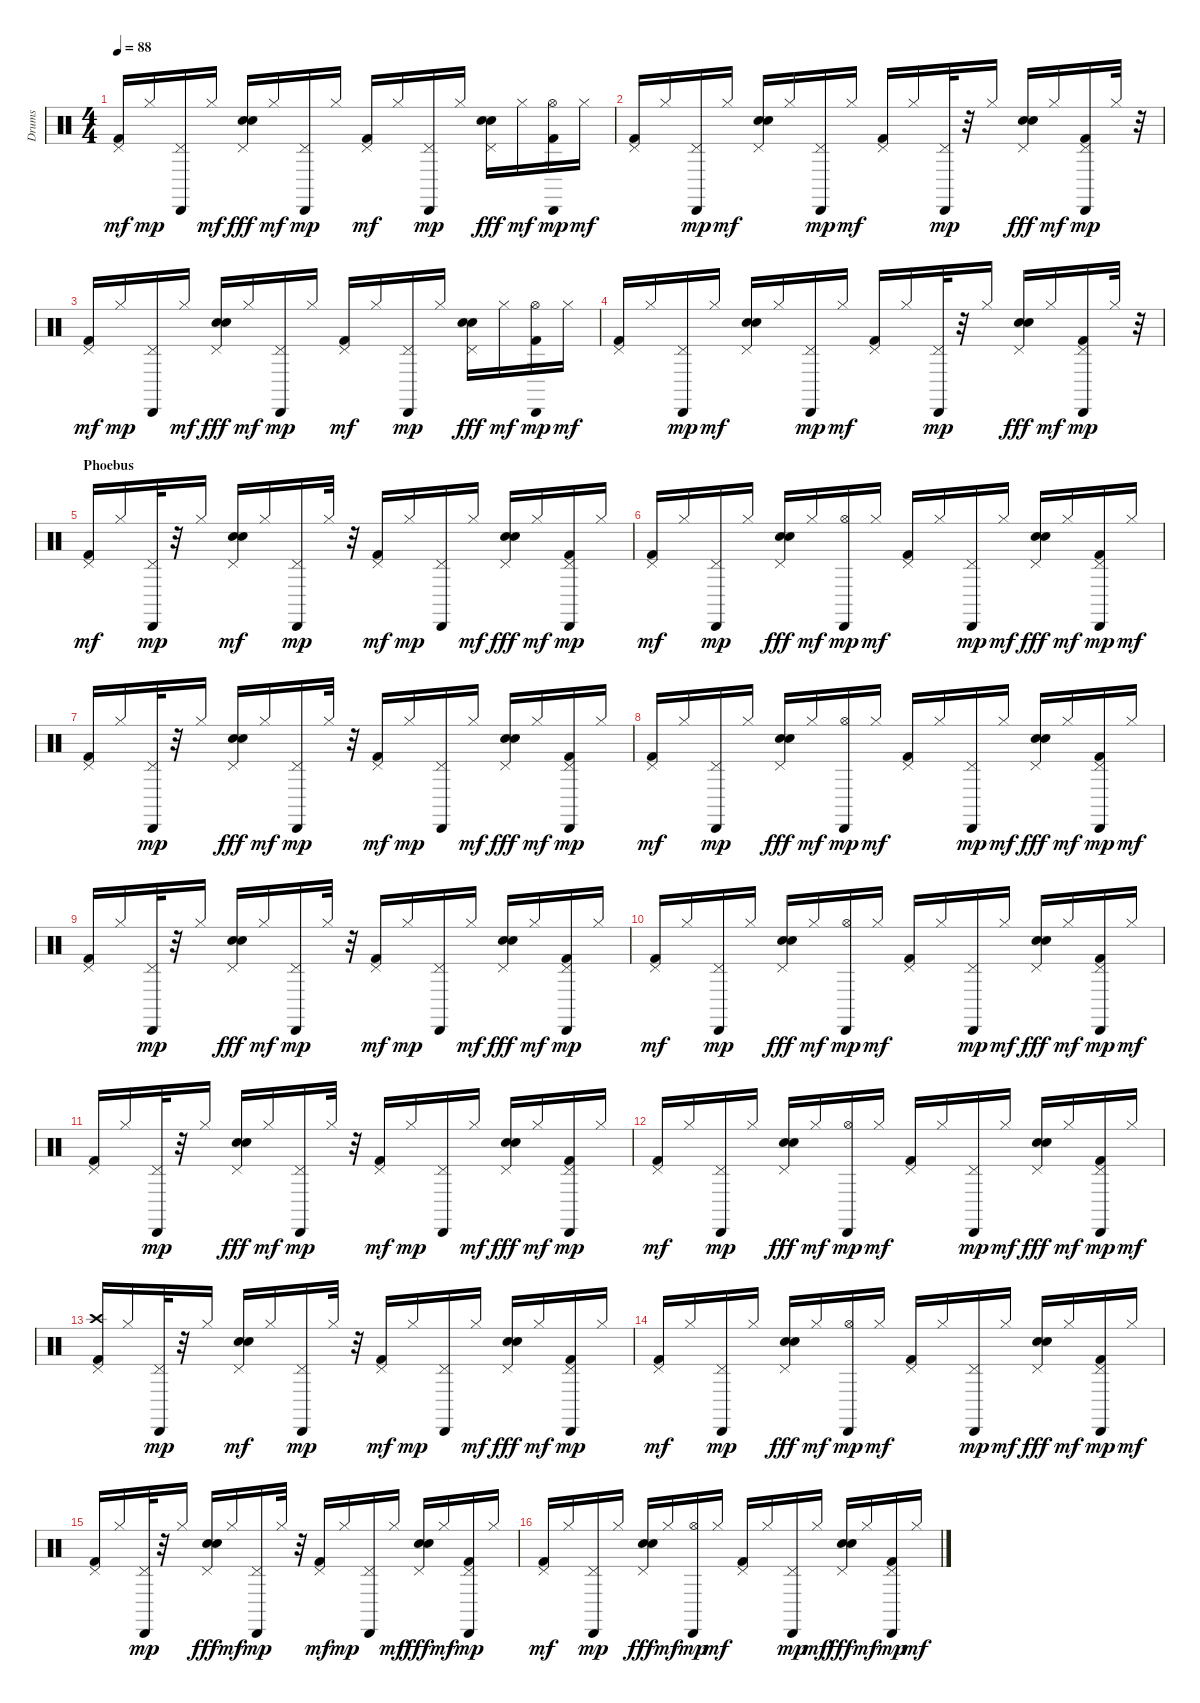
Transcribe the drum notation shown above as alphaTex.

\track ("Drums" "Drums") {instrument percussion}
\staff {score}
\articulation defaults
\ts (4 4)
\tempo 88
\clef neutral
\ks c
("Pedal Hi-Hat (hit)" "Kick (hit) 2").16{dy mf} "Hi-Hat (closed)".16{dy mp} ("Pedal Hi-Hat (hit)" "Cabasa (hit)").16 "Hi-Hat (closed)".16{dy mf} ("Pedal Hi-Hat (hit)" "Snare (hit) 2" "Electric Snare (hit)").16{dy fff} "Hi-Hat (closed)".16{dy mf} ("Pedal Hi-Hat (hit)" "Cabasa (hit)").16{dy mp} "Hi-Hat (closed)".16 ("Pedal Hi-Hat (hit)" "Kick (hit) 2").16{dy mf} "Hi-Hat (closed)".16 ("Pedal Hi-Hat (hit)" "Cabasa (hit)").16{dy mp} "Hi-Hat (closed)".16 ("Pedal Hi-Hat (hit)" "Snare (hit) 2" "Electric Snare (hit)").16{dy fff} "Hi-Hat (closed)".16{dy mf} ("Hi-Hat (open)" "Cabasa (hit)" "Kick (hit) 2").16{dy mp} "Hi-Hat (closed)".16{dy mf} |
("Kick (hit) 2" "Pedal Hi-Hat (hit)").16 "Hi-Hat (closed)".16 ("Pedal Hi-Hat (hit)" "Cabasa (hit)").16{dy mp} "Hi-Hat (closed)".16{dy mf} ("Snare (hit) 2" "Electric Snare (hit)" "Pedal Hi-Hat (hit)").16 "Hi-Hat (closed)".16 ("Pedal Hi-Hat (hit)" "Cabasa (hit)").16{dy mp} "Hi-Hat (closed)".16{dy mf} ("Pedal Hi-Hat (hit)" "Kick (hit) 2").16 "Hi-Hat (closed)".16 ("Pedal Hi-Hat (hit)" "Cabasa (hit)").32{dy mp} r.32 "Hi-Hat (closed)".16 ("Pedal Hi-Hat (hit)" "Snare (hit) 2" "Electric Snare (hit)").16{dy fff} "Hi-Hat (closed)".16{dy mf} ("Pedal Hi-Hat (hit)" "Cabasa (hit)" "Kick (hit) 2").16{dy mp} "Hi-Hat (closed)".32 r.32 |
("Pedal Hi-Hat (hit)" "Kick (hit) 2").16{dy mf} "Hi-Hat (closed)".16{dy mp} ("Pedal Hi-Hat (hit)" "Cabasa (hit)").16 "Hi-Hat (closed)".16{dy mf} ("Pedal Hi-Hat (hit)" "Snare (hit) 2" "Electric Snare (hit)").16{dy fff} "Hi-Hat (closed)".16{dy mf} ("Pedal Hi-Hat (hit)" "Cabasa (hit)").16{dy mp} "Hi-Hat (closed)".16 ("Pedal Hi-Hat (hit)" "Kick (hit) 2").16{dy mf} "Hi-Hat (closed)".16 ("Pedal Hi-Hat (hit)" "Cabasa (hit)").16{dy mp} "Hi-Hat (closed)".16 ("Pedal Hi-Hat (hit)" "Snare (hit) 2" "Electric Snare (hit)").16{dy fff} "Hi-Hat (closed)".16{dy mf} ("Hi-Hat (open)" "Cabasa (hit)" "Kick (hit) 2").16{dy mp} "Hi-Hat (closed)".16{dy mf} |
("Kick (hit) 2" "Pedal Hi-Hat (hit)").16 "Hi-Hat (closed)".16 ("Pedal Hi-Hat (hit)" "Cabasa (hit)").16{dy mp} "Hi-Hat (closed)".16{dy mf} ("Snare (hit) 2" "Electric Snare (hit)" "Pedal Hi-Hat (hit)").16 "Hi-Hat (closed)".16 ("Pedal Hi-Hat (hit)" "Cabasa (hit)").16{dy mp} "Hi-Hat (closed)".16{dy mf} ("Pedal Hi-Hat (hit)" "Kick (hit) 2").16 "Hi-Hat (closed)".16 ("Pedal Hi-Hat (hit)" "Cabasa (hit)").32{dy mp} r.32 "Hi-Hat (closed)".16 ("Pedal Hi-Hat (hit)" "Snare (hit) 2" "Electric Snare (hit)").16{dy fff} "Hi-Hat (closed)".16{dy mf} ("Pedal Hi-Hat (hit)" "Cabasa (hit)" "Kick (hit) 2").16{dy mp} "Hi-Hat (closed)".32 r.32 |
\section ("" "Phoebus")
("Kick (hit) 2" "Pedal Hi-Hat (hit)").16{dy mf} "Hi-Hat (closed)".16 ("Pedal Hi-Hat (hit)" "Cabasa (hit)").32{dy mp} r.32 "Hi-Hat (closed)".16 ("Snare (hit) 2" "Electric Snare (hit)" "Pedal Hi-Hat (hit)").16{dy mf} "Hi-Hat (closed)".16 ("Pedal Hi-Hat (hit)" "Cabasa (hit)").16{dy mp} "Hi-Hat (closed)".32 r.32 ("Pedal Hi-Hat (hit)" "Kick (hit) 2").16{dy mf} "Hi-Hat (closed)".16{dy mp} ("Pedal Hi-Hat (hit)" "Cabasa (hit)").16 "Hi-Hat (closed)".16{dy mf} ("Pedal Hi-Hat (hit)" "Snare (hit) 2" "Electric Snare (hit)").16{dy fff} "Hi-Hat (closed)".16{dy mf} ("Pedal Hi-Hat (hit)" "Cabasa (hit)" "Kick (hit) 2").16{dy mp} "Hi-Hat (closed)".16 |
("Pedal Hi-Hat (hit)" "Kick (hit) 2").16{dy mf} "Hi-Hat (closed)".16 ("Pedal Hi-Hat (hit)" "Cabasa (hit)").16{dy mp} "Hi-Hat (closed)".16 ("Pedal Hi-Hat (hit)" "Snare (hit) 2" "Electric Snare (hit)").16{dy fff} "Hi-Hat (closed)".16{dy mf} ("Hi-Hat (open)" "Cabasa (hit)").16{dy mp} "Hi-Hat (closed)".16{dy mf} ("Pedal Hi-Hat (hit)" "Kick (hit) 2").16 "Hi-Hat (closed)".16 ("Pedal Hi-Hat (hit)" "Cabasa (hit)").16{dy mp} "Hi-Hat (closed)".16{dy mf} ("Pedal Hi-Hat (hit)" "Snare (hit) 2" "Electric Snare (hit)").16{dy fff} "Hi-Hat (closed)".16{dy mf} ("Pedal Hi-Hat (hit)" "Cabasa (hit)" "Kick (hit) 2").16{dy mp} "Hi-Hat (closed)".16{dy mf} |
("Pedal Hi-Hat (hit)" "Kick (hit) 2").16 "Hi-Hat (closed)".16 ("Pedal Hi-Hat (hit)" "Cabasa (hit)").32{dy mp} r.32 "Hi-Hat (closed)".16 ("Pedal Hi-Hat (hit)" "Snare (hit) 2" "Electric Snare (hit)").16{dy fff} "Hi-Hat (closed)".16{dy mf} ("Pedal Hi-Hat (hit)" "Cabasa (hit)").16{dy mp} "Hi-Hat (closed)".32 r.32 ("Pedal Hi-Hat (hit)" "Kick (hit) 2").16{dy mf} "Hi-Hat (closed)".16{dy mp} ("Pedal Hi-Hat (hit)" "Cabasa (hit)").16 "Hi-Hat (closed)".16{dy mf} ("Pedal Hi-Hat (hit)" "Snare (hit) 2" "Electric Snare (hit)").16{dy fff} "Hi-Hat (closed)".16{dy mf} ("Pedal Hi-Hat (hit)" "Cabasa (hit)" "Kick (hit) 2").16{dy mp} "Hi-Hat (closed)".16 |
("Pedal Hi-Hat (hit)" "Kick (hit) 2").16{dy mf} "Hi-Hat (closed)".16 ("Pedal Hi-Hat (hit)" "Cabasa (hit)").16{dy mp} "Hi-Hat (closed)".16 ("Pedal Hi-Hat (hit)" "Snare (hit) 2" "Electric Snare (hit)").16{dy fff} "Hi-Hat (closed)".16{dy mf} ("Hi-Hat (open)" "Cabasa (hit)").16{dy mp} "Hi-Hat (closed)".16{dy mf} ("Kick (hit) 2" "Pedal Hi-Hat (hit)").16 "Hi-Hat (closed)".16 ("Pedal Hi-Hat (hit)" "Cabasa (hit)").16{dy mp} "Hi-Hat (closed)".16{dy mf} ("Snare (hit) 2" "Pedal Hi-Hat (hit)" "Electric Snare (hit)").16{dy fff} "Hi-Hat (closed)".16{dy mf} ("Kick (hit) 2" "Pedal Hi-Hat (hit)" "Cabasa (hit)").16{dy mp} "Hi-Hat (closed)".16{dy mf} |
("Kick (hit) 2" "Pedal Hi-Hat (hit)").16 "Hi-Hat (closed)".16 ("Pedal Hi-Hat (hit)" "Cabasa (hit)").32{dy mp} r.32 "Hi-Hat (closed)".16 ("Snare (hit) 2" "Pedal Hi-Hat (hit)" "Electric Snare (hit)").16{dy fff} "Hi-Hat (closed)".16{dy mf} ("Pedal Hi-Hat (hit)" "Cabasa (hit)").16{dy mp} "Hi-Hat (closed)".32 r.32 ("Pedal Hi-Hat (hit)" "Kick (hit) 2").16{dy mf} "Hi-Hat (closed)".16{dy mp} ("Pedal Hi-Hat (hit)" "Cabasa (hit)").16 "Hi-Hat (closed)".16{dy mf} ("Pedal Hi-Hat (hit)" "Snare (hit) 2" "Electric Snare (hit)").16{dy fff} "Hi-Hat (closed)".16{dy mf} ("Pedal Hi-Hat (hit)" "Cabasa (hit)" "Kick (hit) 2").16{dy mp} "Hi-Hat (closed)".16 |
("Pedal Hi-Hat (hit)" "Kick (hit) 2").16{dy mf} "Hi-Hat (closed)".16 ("Pedal Hi-Hat (hit)" "Cabasa (hit)").16{dy mp} "Hi-Hat (closed)".16 ("Pedal Hi-Hat (hit)" "Snare (hit) 2" "Electric Snare (hit)").16{dy fff} "Hi-Hat (closed)".16{dy mf} ("Hi-Hat (open)" "Cabasa (hit)").16{dy mp} "Hi-Hat (closed)".16{dy mf} ("Pedal Hi-Hat (hit)" "Kick (hit) 2").16 "Hi-Hat (closed)".16 ("Pedal Hi-Hat (hit)" "Cabasa (hit)").16{dy mp} "Hi-Hat (closed)".16{dy mf} ("Pedal Hi-Hat (hit)" "Snare (hit) 2" "Electric Snare (hit)").16{dy fff} "Hi-Hat (closed)".16{dy mf} ("Pedal Hi-Hat (hit)" "Cabasa (hit)" "Kick (hit) 2").16{dy mp} "Hi-Hat (closed)".16{dy mf} |
("Pedal Hi-Hat (hit)" "Kick (hit) 2").16 "Hi-Hat (closed)".16 ("Pedal Hi-Hat (hit)" "Cabasa (hit)").32{dy mp} r.32 "Hi-Hat (closed)".16 ("Pedal Hi-Hat (hit)" "Snare (hit) 2" "Electric Snare (hit)").16{dy fff} "Hi-Hat (closed)".16{dy mf} ("Pedal Hi-Hat (hit)" "Cabasa (hit)").16{dy mp} "Hi-Hat (closed)".32 r.32 ("Pedal Hi-Hat (hit)" "Kick (hit) 2").16{dy mf} "Hi-Hat (closed)".16{dy mp} ("Pedal Hi-Hat (hit)" "Cabasa (hit)").16 "Hi-Hat (closed)".16{dy mf} ("Pedal Hi-Hat (hit)" "Snare (hit) 2" "Electric Snare (hit)").16{dy fff} "Hi-Hat (closed)".16{dy mf} ("Pedal Hi-Hat (hit)" "Cabasa (hit)" "Kick (hit) 2").16{dy mp} "Hi-Hat (closed)".16 |
("Pedal Hi-Hat (hit)" "Kick (hit) 2").16{dy mf} "Hi-Hat (closed)".16 ("Pedal Hi-Hat (hit)" "Cabasa (hit)").16{dy mp} "Hi-Hat (closed)".16 ("Pedal Hi-Hat (hit)" "Snare (hit) 2" "Electric Snare (hit)").16{dy fff} "Hi-Hat (closed)".16{dy mf} ("Hi-Hat (open)" "Cabasa (hit)").16{dy mp} "Hi-Hat (closed)".16{dy mf} ("Pedal Hi-Hat (hit)" "Kick (hit) 2").16 "Hi-Hat (closed)".16 ("Pedal Hi-Hat (hit)" "Cabasa (hit)").16{dy mp} "Hi-Hat (closed)".16{dy mf} ("Pedal Hi-Hat (hit)" "Snare (hit) 2" "Electric Snare (hit)").16{dy fff} "Hi-Hat (closed)".16{dy mf} ("Pedal Hi-Hat (hit)" "Cabasa (hit)" "Kick (hit) 2").16{dy mp} "Hi-Hat (closed)".16{dy mf} |
("Kick (hit) 2" "Crash high (hit)" "Pedal Hi-Hat (hit)").16 "Hi-Hat (closed)".16 ("Pedal Hi-Hat (hit)" "Cabasa (hit)").32{dy mp} r.32 "Hi-Hat (closed)".16 ("Snare (hit) 2" "Electric Snare (hit)" "Pedal Hi-Hat (hit)").16{dy mf} "Hi-Hat (closed)".16 ("Pedal Hi-Hat (hit)" "Cabasa (hit)").16{dy mp} "Hi-Hat (closed)".32 r.32 ("Pedal Hi-Hat (hit)" "Kick (hit) 2").16{dy mf} "Hi-Hat (closed)".16{dy mp} ("Pedal Hi-Hat (hit)" "Cabasa (hit)").16 "Hi-Hat (closed)".16{dy mf} ("Pedal Hi-Hat (hit)" "Snare (hit) 2" "Electric Snare (hit)").16{dy fff} "Hi-Hat (closed)".16{dy mf} ("Pedal Hi-Hat (hit)" "Cabasa (hit)" "Kick (hit) 2").16{dy mp} "Hi-Hat (closed)".16 |
("Pedal Hi-Hat (hit)" "Kick (hit) 2").16{dy mf} "Hi-Hat (closed)".16 ("Pedal Hi-Hat (hit)" "Cabasa (hit)").16{dy mp} "Hi-Hat (closed)".16 ("Pedal Hi-Hat (hit)" "Snare (hit) 2" "Electric Snare (hit)").16{dy fff} "Hi-Hat (closed)".16{dy mf} ("Hi-Hat (open)" "Cabasa (hit)").16{dy mp} "Hi-Hat (closed)".16{dy mf} ("Pedal Hi-Hat (hit)" "Kick (hit) 2").16 "Hi-Hat (closed)".16 ("Pedal Hi-Hat (hit)" "Cabasa (hit)").16{dy mp} "Hi-Hat (closed)".16{dy mf} ("Pedal Hi-Hat (hit)" "Snare (hit) 2" "Electric Snare (hit)").16{dy fff} "Hi-Hat (closed)".16{dy mf} ("Pedal Hi-Hat (hit)" "Cabasa (hit)" "Kick (hit) 2").16{dy mp} "Hi-Hat (closed)".16{dy mf} |
("Pedal Hi-Hat (hit)" "Kick (hit) 2").16 "Hi-Hat (closed)".16 ("Pedal Hi-Hat (hit)" "Cabasa (hit)").32{dy mp} r.32 "Hi-Hat (closed)".16 ("Pedal Hi-Hat (hit)" "Snare (hit) 2" "Electric Snare (hit)").16{dy fff} "Hi-Hat (closed)".16{dy mf} ("Pedal Hi-Hat (hit)" "Cabasa (hit)").16{dy mp} "Hi-Hat (closed)".32 r.32 ("Pedal Hi-Hat (hit)" "Kick (hit) 2").16{dy mf} "Hi-Hat (closed)".16{dy mp} ("Pedal Hi-Hat (hit)" "Cabasa (hit)").16 "Hi-Hat (closed)".16{dy mf} ("Pedal Hi-Hat (hit)" "Snare (hit) 2" "Electric Snare (hit)").16{dy fff} "Hi-Hat (closed)".16{dy mf} ("Pedal Hi-Hat (hit)" "Cabasa (hit)" "Kick (hit) 2").16{dy mp} "Hi-Hat (closed)".16 |
("Pedal Hi-Hat (hit)" "Kick (hit) 2").16{dy mf} "Hi-Hat (closed)".16 ("Pedal Hi-Hat (hit)" "Cabasa (hit)").16{dy mp} "Hi-Hat (closed)".16 ("Pedal Hi-Hat (hit)" "Snare (hit) 2" "Electric Snare (hit)").16{dy fff} "Hi-Hat (closed)".16{dy mf} ("Hi-Hat (open)" "Cabasa (hit)").16{dy mp} "Hi-Hat (closed)".16{dy mf} ("Pedal Hi-Hat (hit)" "Kick (hit) 2").16 "Hi-Hat (closed)".16 ("Pedal Hi-Hat (hit)" "Cabasa (hit)").16{dy mp} "Hi-Hat (closed)".16{dy mf} ("Pedal Hi-Hat (hit)" "Snare (hit) 2" "Electric Snare (hit)").16{dy fff} "Hi-Hat (closed)".16{dy mf} ("Pedal Hi-Hat (hit)" "Cabasa (hit)" "Kick (hit) 2").16{dy mp} "Hi-Hat (closed)".16{dy mf}
